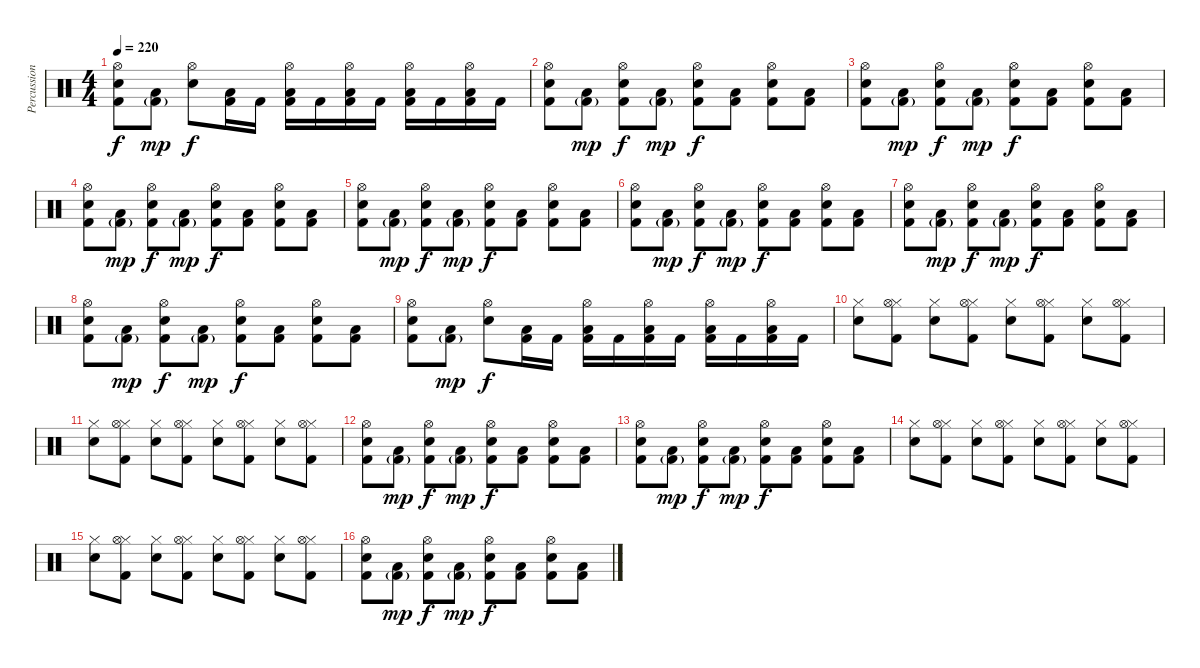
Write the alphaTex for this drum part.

\track ("Percussions" "Percussion") {instrument percussion}
\staff {score}
\articulation defaults
\ts (4 4)
\tempo 220
\clef neutral
\ks c
("Hi-Hat (open)" "Electric Snare (hit)" "Kick (hit) 2").8{dy f} ("Low Tom (hit)" "Kick (hit) 2"{g}).8{dy mp} ("Hi-Hat (open)" "Electric Snare (hit)").8{dy f} ("Kick (hit) 2" "Low Tom (hit)").16 "Kick (hit) 2".16 ("Hi-Hat (open)" "Kick (hit) 2" "Low Tom (hit)").16 "Kick (hit) 2".16 ("Hi-Hat (open)" "Kick (hit) 2" "Low Tom (hit)").16 "Kick (hit) 2".16 ("Hi-Hat (open)" "Kick (hit) 2" "Low Tom (hit)").16 "Kick (hit) 2".16 ("Hi-Hat (open)" "Kick (hit) 2" "Low Tom (hit)").16 "Kick (hit) 2".16 |
("Hi-Hat (open)" "Electric Snare (hit)" "Kick (hit) 2").8 ("Low Tom (hit)" "Kick (hit) 2"{g}).8{dy mp} ("Hi-Hat (open)" "Electric Snare (hit)" "Kick (hit) 2").8{dy f} ("Low Tom (hit)" "Kick (hit) 2"{g}).8{dy mp} ("Hi-Hat (open)" "Electric Snare (hit)" "Kick (hit) 2").8{dy f} ("Low Tom (hit)" "Kick (hit) 2").8 ("Hi-Hat (open)" "Electric Snare (hit)" "Kick (hit) 2").8 ("Low Tom (hit)" "Kick (hit) 2").8 |
("Hi-Hat (open)" "Electric Snare (hit)" "Kick (hit) 2").8 ("Low Tom (hit)" "Kick (hit) 2"{g}).8{dy mp} ("Hi-Hat (open)" "Electric Snare (hit)" "Kick (hit) 2").8{dy f} ("Low Tom (hit)" "Kick (hit) 2"{g}).8{dy mp} ("Hi-Hat (open)" "Electric Snare (hit)" "Kick (hit) 2").8{dy f} ("Low Tom (hit)" "Kick (hit) 2").8 ("Hi-Hat (open)" "Electric Snare (hit)" "Kick (hit) 2").8 ("Low Tom (hit)" "Kick (hit) 2").8 |
("Hi-Hat (open)" "Electric Snare (hit)" "Kick (hit) 2").8 ("Low Tom (hit)" "Kick (hit) 2"{g}).8{dy mp} ("Hi-Hat (open)" "Electric Snare (hit)" "Kick (hit) 2").8{dy f} ("Low Tom (hit)" "Kick (hit) 2"{g}).8{dy mp} ("Hi-Hat (open)" "Electric Snare (hit)" "Kick (hit) 2").8{dy f} ("Low Tom (hit)" "Kick (hit) 2").8 ("Hi-Hat (open)" "Electric Snare (hit)" "Kick (hit) 2").8 ("Low Tom (hit)" "Kick (hit) 2").8 |
("Hi-Hat (open)" "Electric Snare (hit)" "Kick (hit) 2").8 ("Low Tom (hit)" "Kick (hit) 2"{g}).8{dy mp} ("Hi-Hat (open)" "Electric Snare (hit)" "Kick (hit) 2").8{dy f} ("Low Tom (hit)" "Kick (hit) 2"{g}).8{dy mp} ("Hi-Hat (open)" "Electric Snare (hit)" "Kick (hit) 2").8{dy f} ("Low Tom (hit)" "Kick (hit) 2").8 ("Hi-Hat (open)" "Electric Snare (hit)" "Kick (hit) 2").8 ("Low Tom (hit)" "Kick (hit) 2").8 |
("Hi-Hat (open)" "Electric Snare (hit)" "Kick (hit) 2").8 ("Low Tom (hit)" "Kick (hit) 2"{g}).8{dy mp} ("Hi-Hat (open)" "Electric Snare (hit)" "Kick (hit) 2").8{dy f} ("Low Tom (hit)" "Kick (hit) 2"{g}).8{dy mp} ("Hi-Hat (open)" "Electric Snare (hit)" "Kick (hit) 2").8{dy f} ("Low Tom (hit)" "Kick (hit) 2").8 ("Hi-Hat (open)" "Electric Snare (hit)" "Kick (hit) 2").8 ("Low Tom (hit)" "Kick (hit) 2").8 |
("Hi-Hat (open)" "Electric Snare (hit)" "Kick (hit) 2").8 ("Low Tom (hit)" "Kick (hit) 2"{g}).8{dy mp} ("Hi-Hat (open)" "Electric Snare (hit)" "Kick (hit) 2").8{dy f} ("Low Tom (hit)" "Kick (hit) 2"{g}).8{dy mp} ("Hi-Hat (open)" "Electric Snare (hit)" "Kick (hit) 2").8{dy f} ("Low Tom (hit)" "Kick (hit) 2").8 ("Hi-Hat (open)" "Electric Snare (hit)" "Kick (hit) 2").8 ("Low Tom (hit)" "Kick (hit) 2").8 |
("Hi-Hat (open)" "Electric Snare (hit)" "Kick (hit) 2").8 ("Low Tom (hit)" "Kick (hit) 2"{g}).8{dy mp} ("Hi-Hat (open)" "Electric Snare (hit)" "Kick (hit) 2").8{dy f} ("Low Tom (hit)" "Kick (hit) 2"{g}).8{dy mp} ("Hi-Hat (open)" "Electric Snare (hit)" "Kick (hit) 2").8{dy f} ("Low Tom (hit)" "Kick (hit) 2").8 ("Hi-Hat (open)" "Electric Snare (hit)" "Kick (hit) 2").8 ("Low Tom (hit)" "Kick (hit) 2").8 |
("Hi-Hat (open)" "Electric Snare (hit)" "Kick (hit) 2").8 ("Low Tom (hit)" "Kick (hit) 2"{g}).8{dy mp} ("Hi-Hat (open)" "Electric Snare (hit)").8{dy f} ("Kick (hit) 2" "Low Tom (hit)").16 "Kick (hit) 2".16 ("Hi-Hat (open)" "Kick (hit) 2" "Low Tom (hit)").16 "Kick (hit) 2".16 ("Hi-Hat (open)" "Kick (hit) 2" "Low Tom (hit)").16 "Kick (hit) 2".16 ("Hi-Hat (open)" "Kick (hit) 2" "Low Tom (hit)").16 "Kick (hit) 2".16 ("Hi-Hat (open)" "Kick (hit) 2" "Low Tom (hit)").16 "Kick (hit) 2".16 |
("Hi-Hat (closed)" "Electric Snare (hit)").8 ("Hi-Hat (closed)" "Kick (hit) 2" "Hi-Hat (open)").8 ("Hi-Hat (closed)" "Electric Snare (hit)").8 ("Hi-Hat (closed)" "Kick (hit) 2" "Hi-Hat (open)").8 ("Hi-Hat (closed)" "Electric Snare (hit)").8 ("Hi-Hat (closed)" "Kick (hit) 2" "Hi-Hat (open)").8 ("Hi-Hat (closed)" "Electric Snare (hit)").8 ("Hi-Hat (closed)" "Kick (hit) 2" "Hi-Hat (open)").8 |
("Hi-Hat (closed)" "Electric Snare (hit)").8 ("Hi-Hat (closed)" "Kick (hit) 2" "Hi-Hat (open)").8 ("Hi-Hat (closed)" "Electric Snare (hit)").8 ("Hi-Hat (closed)" "Kick (hit) 2" "Hi-Hat (open)").8 ("Hi-Hat (closed)" "Electric Snare (hit)").8 ("Hi-Hat (closed)" "Kick (hit) 2" "Hi-Hat (open)").8 ("Hi-Hat (closed)" "Electric Snare (hit)").8 ("Hi-Hat (closed)" "Kick (hit) 2" "Hi-Hat (open)").8 |
("Hi-Hat (open)" "Electric Snare (hit)" "Kick (hit) 2").8 ("Low Tom (hit)" "Kick (hit) 2"{g}).8{dy mp} ("Hi-Hat (open)" "Electric Snare (hit)" "Kick (hit) 2").8{dy f} ("Low Tom (hit)" "Kick (hit) 2"{g}).8{dy mp} ("Hi-Hat (open)" "Electric Snare (hit)" "Kick (hit) 2").8{dy f} ("Low Tom (hit)" "Kick (hit) 2").8 ("Hi-Hat (open)" "Electric Snare (hit)" "Kick (hit) 2").8 ("Low Tom (hit)" "Kick (hit) 2").8 |
("Hi-Hat (open)" "Electric Snare (hit)" "Kick (hit) 2").8 ("Low Tom (hit)" "Kick (hit) 2"{g}).8{dy mp} ("Hi-Hat (open)" "Electric Snare (hit)" "Kick (hit) 2").8{dy f} ("Low Tom (hit)" "Kick (hit) 2"{g}).8{dy mp} ("Hi-Hat (open)" "Electric Snare (hit)" "Kick (hit) 2").8{dy f} ("Low Tom (hit)" "Kick (hit) 2").8 ("Hi-Hat (open)" "Electric Snare (hit)" "Kick (hit) 2").8 ("Low Tom (hit)" "Kick (hit) 2").8 |
("Hi-Hat (closed)" "Electric Snare (hit)").8 ("Hi-Hat (closed)" "Kick (hit) 2" "Hi-Hat (open)").8 ("Hi-Hat (closed)" "Electric Snare (hit)").8 ("Hi-Hat (closed)" "Kick (hit) 2" "Hi-Hat (open)").8 ("Hi-Hat (closed)" "Electric Snare (hit)").8 ("Hi-Hat (closed)" "Kick (hit) 2" "Hi-Hat (open)").8 ("Hi-Hat (closed)" "Electric Snare (hit)").8 ("Hi-Hat (closed)" "Kick (hit) 2" "Hi-Hat (open)").8 |
("Hi-Hat (closed)" "Electric Snare (hit)").8 ("Hi-Hat (closed)" "Kick (hit) 2" "Hi-Hat (open)").8 ("Hi-Hat (closed)" "Electric Snare (hit)").8 ("Hi-Hat (closed)" "Kick (hit) 2" "Hi-Hat (open)").8 ("Hi-Hat (closed)" "Electric Snare (hit)").8 ("Hi-Hat (closed)" "Kick (hit) 2" "Hi-Hat (open)").8 ("Hi-Hat (closed)" "Electric Snare (hit)").8 ("Hi-Hat (closed)" "Kick (hit) 2" "Hi-Hat (open)").8 |
("Hi-Hat (open)" "Electric Snare (hit)" "Kick (hit) 2").8 ("Low Tom (hit)" "Kick (hit) 2"{g}).8{dy mp} ("Hi-Hat (open)" "Electric Snare (hit)" "Kick (hit) 2").8{dy f} ("Low Tom (hit)" "Kick (hit) 2"{g}).8{dy mp} ("Hi-Hat (open)" "Electric Snare (hit)" "Kick (hit) 2").8{dy f} ("Low Tom (hit)" "Kick (hit) 2").8 ("Hi-Hat (open)" "Electric Snare (hit)" "Kick (hit) 2").8 ("Low Tom (hit)" "Kick (hit) 2").8
